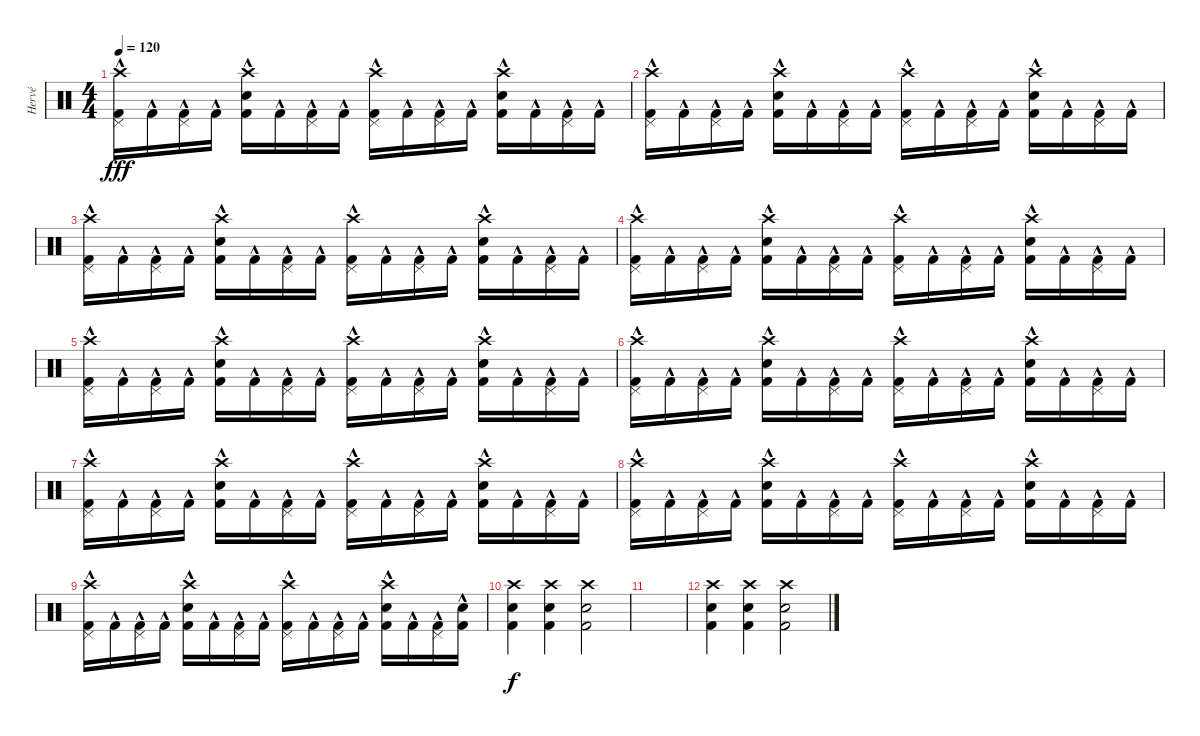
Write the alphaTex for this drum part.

\track ("Hervé" "Hervé") {instrument percussion}
\staff {score}
\articulation defaults
\ts (4 4)
\tempo 120
\clef neutral
\ks c
("Crash high (hit)" "Pedal Hi-Hat (hit)" "Kick (hit) 2"{hac}).16{dy fff} "Kick (hit) 2"{hac}.16 ("Pedal Hi-Hat (hit)" "Kick (hit) 2"{hac}).16 "Kick (hit) 2"{hac}.16 ("Crash high (hit)" "Electric Snare (hit)" "Kick (hit) 2"{hac}).16 "Kick (hit) 2"{hac}.16 ("Pedal Hi-Hat (hit)" "Kick (hit) 2"{hac}).16 "Kick (hit) 2"{hac}.16 ("Crash high (hit)" "Pedal Hi-Hat (hit)" "Kick (hit) 2"{hac}).16 "Kick (hit) 2"{hac}.16 ("Pedal Hi-Hat (hit)" "Kick (hit) 2"{hac}).16 "Kick (hit) 2"{hac}.16 ("Crash high (hit)" "Electric Snare (hit)" "Kick (hit) 2"{hac}).16 "Kick (hit) 2"{hac}.16 ("Pedal Hi-Hat (hit)" "Kick (hit) 2"{hac}).16 "Kick (hit) 2"{hac}.16 |
("Crash high (hit)" "Pedal Hi-Hat (hit)" "Kick (hit) 2"{hac}).16 "Kick (hit) 2"{hac}.16 ("Pedal Hi-Hat (hit)" "Kick (hit) 2"{hac}).16 "Kick (hit) 2"{hac}.16 ("Crash high (hit)" "Electric Snare (hit)" "Kick (hit) 2"{hac}).16 "Kick (hit) 2"{hac}.16 ("Pedal Hi-Hat (hit)" "Kick (hit) 2"{hac}).16 "Kick (hit) 2"{hac}.16 ("Crash high (hit)" "Pedal Hi-Hat (hit)" "Kick (hit) 2"{hac}).16 "Kick (hit) 2"{hac}.16 ("Pedal Hi-Hat (hit)" "Kick (hit) 2"{hac}).16 "Kick (hit) 2"{hac}.16 ("Crash high (hit)" "Electric Snare (hit)" "Kick (hit) 2"{hac}).16 "Kick (hit) 2"{hac}.16 ("Pedal Hi-Hat (hit)" "Kick (hit) 2"{hac}).16 "Kick (hit) 2"{hac}.16 |
("Crash high (hit)" "Pedal Hi-Hat (hit)" "Kick (hit) 2"{hac}).16 "Kick (hit) 2"{hac}.16 ("Pedal Hi-Hat (hit)" "Kick (hit) 2"{hac}).16 "Kick (hit) 2"{hac}.16 ("Crash high (hit)" "Electric Snare (hit)" "Kick (hit) 2"{hac}).16 "Kick (hit) 2"{hac}.16 ("Pedal Hi-Hat (hit)" "Kick (hit) 2"{hac}).16 "Kick (hit) 2"{hac}.16 ("Crash high (hit)" "Pedal Hi-Hat (hit)" "Kick (hit) 2"{hac}).16 "Kick (hit) 2"{hac}.16 ("Pedal Hi-Hat (hit)" "Kick (hit) 2"{hac}).16 "Kick (hit) 2"{hac}.16 ("Crash high (hit)" "Electric Snare (hit)" "Kick (hit) 2"{hac}).16 "Kick (hit) 2"{hac}.16 ("Pedal Hi-Hat (hit)" "Kick (hit) 2"{hac}).16 "Kick (hit) 2"{hac}.16 |
("Crash high (hit)" "Pedal Hi-Hat (hit)" "Kick (hit) 2"{hac}).16 "Kick (hit) 2"{hac}.16 ("Pedal Hi-Hat (hit)" "Kick (hit) 2"{hac}).16 "Kick (hit) 2"{hac}.16 ("Crash high (hit)" "Electric Snare (hit)" "Kick (hit) 2"{hac}).16 "Kick (hit) 2"{hac}.16 ("Pedal Hi-Hat (hit)" "Kick (hit) 2"{hac}).16 "Kick (hit) 2"{hac}.16 ("Crash high (hit)" "Pedal Hi-Hat (hit)" "Kick (hit) 2"{hac}).16 "Kick (hit) 2"{hac}.16 ("Pedal Hi-Hat (hit)" "Kick (hit) 2"{hac}).16 "Kick (hit) 2"{hac}.16 ("Crash high (hit)" "Electric Snare (hit)" "Kick (hit) 2"{hac}).16 "Kick (hit) 2"{hac}.16 ("Pedal Hi-Hat (hit)" "Kick (hit) 2"{hac}).16 "Kick (hit) 2"{hac}.16 |
("Crash high (hit)" "Pedal Hi-Hat (hit)" "Kick (hit) 2"{hac}).16 "Kick (hit) 2"{hac}.16 ("Pedal Hi-Hat (hit)" "Kick (hit) 2"{hac}).16 "Kick (hit) 2"{hac}.16 ("Crash high (hit)" "Electric Snare (hit)" "Kick (hit) 2"{hac}).16 "Kick (hit) 2"{hac}.16 ("Pedal Hi-Hat (hit)" "Kick (hit) 2"{hac}).16 "Kick (hit) 2"{hac}.16 ("Crash high (hit)" "Pedal Hi-Hat (hit)" "Kick (hit) 2"{hac}).16 "Kick (hit) 2"{hac}.16 ("Pedal Hi-Hat (hit)" "Kick (hit) 2"{hac}).16 "Kick (hit) 2"{hac}.16 ("Crash high (hit)" "Electric Snare (hit)" "Kick (hit) 2"{hac}).16 "Kick (hit) 2"{hac}.16 ("Pedal Hi-Hat (hit)" "Kick (hit) 2"{hac}).16 "Kick (hit) 2"{hac}.16 |
("Crash high (hit)" "Pedal Hi-Hat (hit)" "Kick (hit) 2"{hac}).16 "Kick (hit) 2"{hac}.16 ("Pedal Hi-Hat (hit)" "Kick (hit) 2"{hac}).16 "Kick (hit) 2"{hac}.16 ("Crash high (hit)" "Electric Snare (hit)" "Kick (hit) 2"{hac}).16 "Kick (hit) 2"{hac}.16 ("Pedal Hi-Hat (hit)" "Kick (hit) 2"{hac}).16 "Kick (hit) 2"{hac}.16 ("Crash high (hit)" "Pedal Hi-Hat (hit)" "Kick (hit) 2"{hac}).16 "Kick (hit) 2"{hac}.16 ("Pedal Hi-Hat (hit)" "Kick (hit) 2"{hac}).16 "Kick (hit) 2"{hac}.16 ("Crash high (hit)" "Electric Snare (hit)" "Kick (hit) 2"{hac}).16 "Kick (hit) 2"{hac}.16 ("Pedal Hi-Hat (hit)" "Kick (hit) 2"{hac}).16 "Kick (hit) 2"{hac}.16 |
("Crash high (hit)" "Pedal Hi-Hat (hit)" "Kick (hit) 2"{hac}).16 "Kick (hit) 2"{hac}.16 ("Pedal Hi-Hat (hit)" "Kick (hit) 2"{hac}).16 "Kick (hit) 2"{hac}.16 ("Crash high (hit)" "Electric Snare (hit)" "Kick (hit) 2"{hac}).16 "Kick (hit) 2"{hac}.16 ("Pedal Hi-Hat (hit)" "Kick (hit) 2"{hac}).16 "Kick (hit) 2"{hac}.16 ("Crash high (hit)" "Pedal Hi-Hat (hit)" "Kick (hit) 2"{hac}).16 "Kick (hit) 2"{hac}.16 ("Pedal Hi-Hat (hit)" "Kick (hit) 2"{hac}).16 "Kick (hit) 2"{hac}.16 ("Crash high (hit)" "Electric Snare (hit)" "Kick (hit) 2"{hac}).16 "Kick (hit) 2"{hac}.16 ("Pedal Hi-Hat (hit)" "Kick (hit) 2"{hac}).16 "Kick (hit) 2"{hac}.16 |
("Crash high (hit)" "Pedal Hi-Hat (hit)" "Kick (hit) 2"{hac}).16 "Kick (hit) 2"{hac}.16 ("Pedal Hi-Hat (hit)" "Kick (hit) 2"{hac}).16 "Kick (hit) 2"{hac}.16 ("Crash high (hit)" "Electric Snare (hit)" "Kick (hit) 2"{hac}).16 "Kick (hit) 2"{hac}.16 ("Pedal Hi-Hat (hit)" "Kick (hit) 2"{hac}).16 "Kick (hit) 2"{hac}.16 ("Crash high (hit)" "Pedal Hi-Hat (hit)" "Kick (hit) 2"{hac}).16 "Kick (hit) 2"{hac}.16 ("Pedal Hi-Hat (hit)" "Kick (hit) 2"{hac}).16 "Kick (hit) 2"{hac}.16 ("Crash high (hit)" "Electric Snare (hit)" "Kick (hit) 2"{hac}).16 "Kick (hit) 2"{hac}.16 ("Pedal Hi-Hat (hit)" "Kick (hit) 2"{hac}).16 "Kick (hit) 2"{hac}.16 |
("Crash high (hit)" "Pedal Hi-Hat (hit)" "Kick (hit) 2"{hac}).16 "Kick (hit) 2"{hac}.16 ("Pedal Hi-Hat (hit)" "Kick (hit) 2"{hac}).16 "Kick (hit) 2"{hac}.16 ("Crash high (hit)" "Electric Snare (hit)" "Kick (hit) 2"{hac}).16 "Kick (hit) 2"{hac}.16 ("Pedal Hi-Hat (hit)" "Kick (hit) 2"{hac}).16 "Kick (hit) 2"{hac}.16 ("Crash high (hit)" "Pedal Hi-Hat (hit)" "Kick (hit) 2"{hac}).16 "Kick (hit) 2"{hac}.16 ("Pedal Hi-Hat (hit)" "Kick (hit) 2"{hac}).16 "Kick (hit) 2"{hac}.16 ("Crash high (hit)" "Electric Snare (hit)" "Kick (hit) 2"{hac}).16 "Kick (hit) 2"{hac}.16 ("Pedal Hi-Hat (hit)" "Kick (hit) 2"{hac}).16 ("Snare (hit)" "Kick (hit) 2"{hac}).16 |
("Crash high (hit)" "Kick (hit) 2" "Electric Snare (hit)").4{dy f} ("Crash high (hit)" "Kick (hit) 2" "Electric Snare (hit)").4 ("Crash high (hit)" "Kick (hit) 2" "Electric Snare (hit)").2 |
|
("Crash high (hit)" "Kick (hit) 2" "Electric Snare (hit)").4 ("Crash high (hit)" "Kick (hit) 2" "Electric Snare (hit)").4 ("Crash high (hit)" "Kick (hit) 2" "Electric Snare (hit)").2
